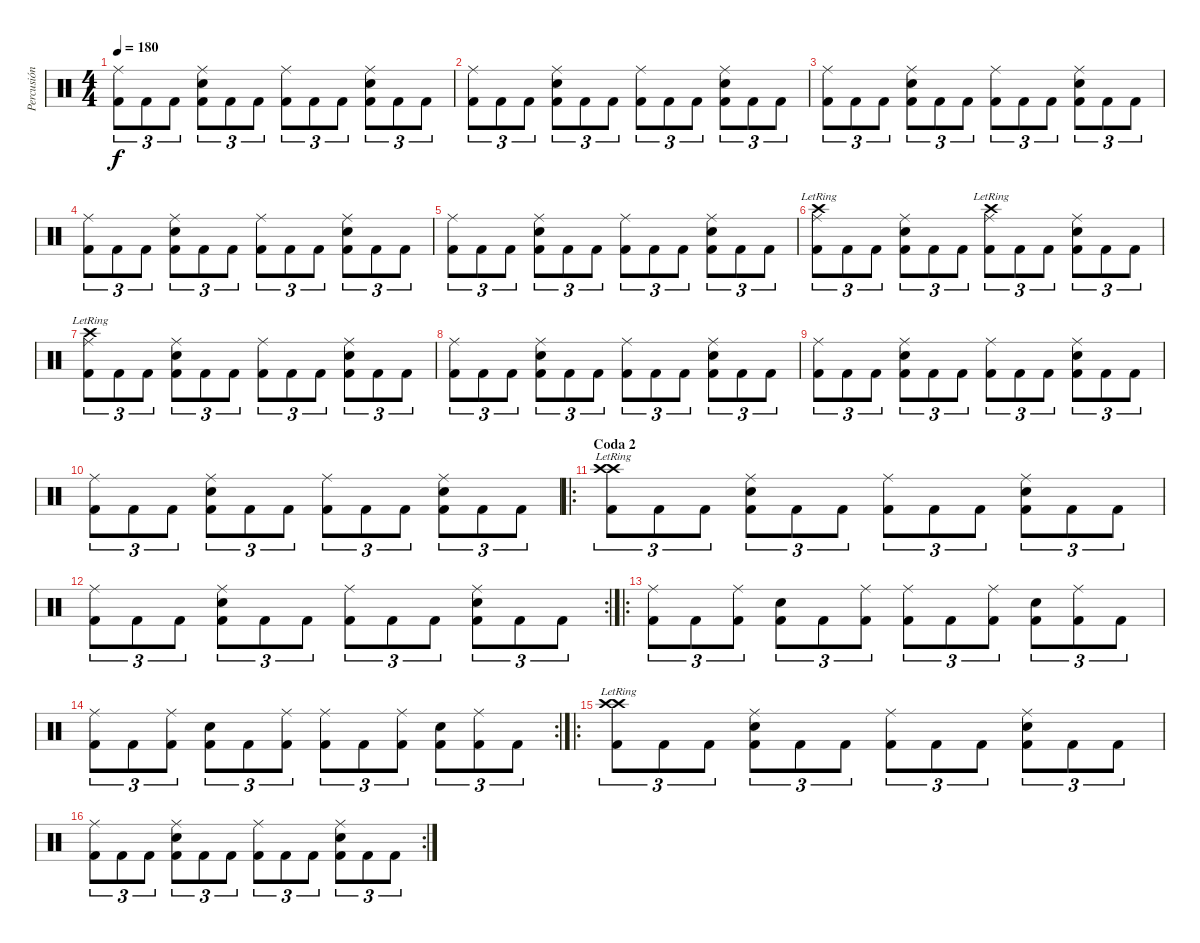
\track ("Percusión" "Percusión") {instrument percussion}
\staff {score}
\articulation defaults
\ts (4 4)
\tempo 180
\clef neutral
\ks c
("Ride (middle)" "Kick (hit) 2").8{tu (3 2) dy f} "Kick (hit) 2".8{tu (3 2)} "Kick (hit) 2".8{tu (3 2)} ("Ride (middle)" "Snare (hit) 2" "Kick (hit) 2").8{tu (3 2)} "Kick (hit) 2".8{tu (3 2)} "Kick (hit) 2".8{tu (3 2)} ("Ride (middle)" "Kick (hit) 2").8{tu (3 2)} "Kick (hit) 2".8{tu (3 2)} "Kick (hit) 2".8{tu (3 2)} ("Ride (middle)" "Snare (hit) 2" "Kick (hit) 2").8{tu (3 2)} "Kick (hit) 2".8{tu (3 2)} "Kick (hit) 2".8{tu (3 2)} |
("Ride (middle)" "Kick (hit) 2").8{tu (3 2)} "Kick (hit) 2".8{tu (3 2)} "Kick (hit) 2".8{tu (3 2)} ("Ride (middle)" "Snare (hit) 2" "Kick (hit) 2").8{tu (3 2)} "Kick (hit) 2".8{tu (3 2)} "Kick (hit) 2".8{tu (3 2)} ("Ride (middle)" "Kick (hit) 2").8{tu (3 2)} "Kick (hit) 2".8{tu (3 2)} "Kick (hit) 2".8{tu (3 2)} ("Ride (middle)" "Snare (hit) 2" "Kick (hit) 2").8{tu (3 2)} "Kick (hit) 2".8{tu (3 2)} "Kick (hit) 2".8{tu (3 2)} |
("Ride (middle)" "Kick (hit) 2").8{tu (3 2)} "Kick (hit) 2".8{tu (3 2)} "Kick (hit) 2".8{tu (3 2)} ("Ride (middle)" "Snare (hit) 2" "Kick (hit) 2").8{tu (3 2)} "Kick (hit) 2".8{tu (3 2)} "Kick (hit) 2".8{tu (3 2)} ("Ride (middle)" "Kick (hit) 2").8{tu (3 2)} "Kick (hit) 2".8{tu (3 2)} "Kick (hit) 2".8{tu (3 2)} ("Ride (middle)" "Snare (hit) 2" "Kick (hit) 2").8{tu (3 2)} "Kick (hit) 2".8{tu (3 2)} "Kick (hit) 2".8{tu (3 2)} |
("Ride (middle)" "Kick (hit) 2").8{tu (3 2)} "Kick (hit) 2".8{tu (3 2)} "Kick (hit) 2".8{tu (3 2)} ("Ride (middle)" "Snare (hit) 2" "Kick (hit) 2").8{tu (3 2)} "Kick (hit) 2".8{tu (3 2)} "Kick (hit) 2".8{tu (3 2)} ("Ride (middle)" "Kick (hit) 2").8{tu (3 2)} "Kick (hit) 2".8{tu (3 2)} "Kick (hit) 2".8{tu (3 2)} ("Ride (middle)" "Snare (hit) 2" "Kick (hit) 2").8{tu (3 2)} "Kick (hit) 2".8{tu (3 2)} "Kick (hit) 2".8{tu (3 2)} |
("Ride (middle)" "Kick (hit) 2").8{tu (3 2)} "Kick (hit) 2".8{tu (3 2)} "Kick (hit) 2".8{tu (3 2)} ("Ride (middle)" "Snare (hit) 2" "Kick (hit) 2").8{tu (3 2)} "Kick (hit) 2".8{tu (3 2)} "Kick (hit) 2".8{tu (3 2)} ("Ride (middle)" "Kick (hit) 2").8{tu (3 2)} "Kick (hit) 2".8{tu (3 2)} "Kick (hit) 2".8{tu (3 2)} ("Ride (middle)" "Snare (hit) 2" "Kick (hit) 2").8{tu (3 2)} "Kick (hit) 2".8{tu (3 2)} "Kick (hit) 2".8{tu (3 2)} |
("Crash high (hit)"{lr} "Ride (middle)" "Kick (hit) 2").8{tu (3 2)} "Kick (hit) 2".8{tu (3 2)} "Kick (hit) 2".8{tu (3 2)} ("Ride (middle)" "Snare (hit) 2" "Kick (hit) 2").8{tu (3 2)} "Kick (hit) 2".8{tu (3 2)} "Kick (hit) 2".8{tu (3 2)} ("Crash high (hit)"{lr} "Ride (middle)" "Kick (hit) 2").8{tu (3 2)} "Kick (hit) 2".8{tu (3 2)} "Kick (hit) 2".8{tu (3 2)} ("Ride (middle)" "Snare (hit) 2" "Kick (hit) 2").8{tu (3 2)} "Kick (hit) 2".8{tu (3 2)} "Kick (hit) 2".8{tu (3 2)} |
("Crash high (hit)"{lr} "Ride (middle)" "Kick (hit) 2").8{tu (3 2)} "Kick (hit) 2".8{tu (3 2)} "Kick (hit) 2".8{tu (3 2)} ("Ride (middle)" "Snare (hit) 2" "Kick (hit) 2").8{tu (3 2)} "Kick (hit) 2".8{tu (3 2)} "Kick (hit) 2".8{tu (3 2)} ("Ride (middle)" "Kick (hit) 2").8{tu (3 2)} "Kick (hit) 2".8{tu (3 2)} "Kick (hit) 2".8{tu (3 2)} ("Ride (middle)" "Snare (hit) 2" "Kick (hit) 2").8{tu (3 2)} "Kick (hit) 2".8{tu (3 2)} "Kick (hit) 2".8{tu (3 2)} |
("Ride (middle)" "Kick (hit) 2").8{tu (3 2)} "Kick (hit) 2".8{tu (3 2)} "Kick (hit) 2".8{tu (3 2)} ("Ride (middle)" "Snare (hit) 2" "Kick (hit) 2").8{tu (3 2)} "Kick (hit) 2".8{tu (3 2)} "Kick (hit) 2".8{tu (3 2)} ("Ride (middle)" "Kick (hit) 2").8{tu (3 2)} "Kick (hit) 2".8{tu (3 2)} "Kick (hit) 2".8{tu (3 2)} ("Ride (middle)" "Snare (hit) 2" "Kick (hit) 2").8{tu (3 2)} "Kick (hit) 2".8{tu (3 2)} "Kick (hit) 2".8{tu (3 2)} |
("Ride (middle)" "Kick (hit) 2").8{tu (3 2)} "Kick (hit) 2".8{tu (3 2)} "Kick (hit) 2".8{tu (3 2)} ("Ride (middle)" "Snare (hit) 2" "Kick (hit) 2").8{tu (3 2)} "Kick (hit) 2".8{tu (3 2)} "Kick (hit) 2".8{tu (3 2)} ("Ride (middle)" "Kick (hit) 2").8{tu (3 2)} "Kick (hit) 2".8{tu (3 2)} "Kick (hit) 2".8{tu (3 2)} ("Ride (middle)" "Snare (hit) 2" "Kick (hit) 2").8{tu (3 2)} "Kick (hit) 2".8{tu (3 2)} "Kick (hit) 2".8{tu (3 2)} |
("Ride (middle)" "Kick (hit) 2").8{tu (3 2)} "Kick (hit) 2".8{tu (3 2)} "Kick (hit) 2".8{tu (3 2)} ("Ride (middle)" "Snare (hit) 2" "Kick (hit) 2").8{tu (3 2)} "Kick (hit) 2".8{tu (3 2)} "Kick (hit) 2".8{tu (3 2)} ("Ride (middle)" "Kick (hit) 2").8{tu (3 2)} "Kick (hit) 2".8{tu (3 2)} "Kick (hit) 2".8{tu (3 2)} ("Ride (middle)" "Snare (hit) 2" "Kick (hit) 2").8{tu (3 2)} "Kick (hit) 2".8{tu (3 2)} "Kick (hit) 2".8{tu (3 2)} |
\ro
\section ("" "Coda 2")
("Crash high (hit)"{lr} "Crash high (hit)"{lr} "Kick (hit) 2").8{tu (3 2)} "Kick (hit) 2".8{tu (3 2)} "Kick (hit) 2".8{tu (3 2)} ("Ride (middle)" "Snare (hit) 2" "Kick (hit) 2").8{tu (3 2)} "Kick (hit) 2".8{tu (3 2)} "Kick (hit) 2".8{tu (3 2)} ("Ride (middle)" "Kick (hit) 2").8{tu (3 2)} "Kick (hit) 2".8{tu (3 2)} "Kick (hit) 2".8{tu (3 2)} ("Ride (middle)" "Snare (hit) 2" "Kick (hit) 2").8{tu (3 2)} "Kick (hit) 2".8{tu (3 2)} "Kick (hit) 2".8{tu (3 2)} |
\rc 2
("Ride (middle)" "Kick (hit) 2").8{tu (3 2)} "Kick (hit) 2".8{tu (3 2)} "Kick (hit) 2".8{tu (3 2)} ("Ride (middle)" "Snare (hit) 2" "Kick (hit) 2").8{tu (3 2)} "Kick (hit) 2".8{tu (3 2)} "Kick (hit) 2".8{tu (3 2)} ("Ride (middle)" "Kick (hit) 2").8{tu (3 2)} "Kick (hit) 2".8{tu (3 2)} "Kick (hit) 2".8{tu (3 2)} ("Ride (middle)" "Snare (hit) 2" "Kick (hit) 2").8{tu (3 2)} "Kick (hit) 2".8{tu (3 2)} "Kick (hit) 2".8{tu (3 2)} |
\ro
("Ride (middle)" "Kick (hit) 2").8{tu (3 2)} "Kick (hit) 2".8{tu (3 2)} ("Ride (middle)" "Kick (hit) 2").8{tu (3 2)} ("Snare (hit) 2" "Kick (hit) 2").8{tu (3 2)} "Kick (hit) 2".8{tu (3 2)} ("Ride (middle)" "Kick (hit) 2").8{tu (3 2)} ("Ride (middle)" "Kick (hit) 2").8{tu (3 2)} "Kick (hit) 2".8{tu (3 2)} ("Ride (middle)" "Kick (hit) 2").8{tu (3 2)} ("Snare (hit) 2" "Kick (hit) 2").8{tu (3 2)} ("Ride (middle)" "Kick (hit) 2").8{tu (3 2)} "Kick (hit) 2".8{tu (3 2)} |
\rc 2
("Ride (middle)" "Kick (hit) 2").8{tu (3 2)} "Kick (hit) 2".8{tu (3 2)} ("Ride (middle)" "Kick (hit) 2").8{tu (3 2)} ("Snare (hit) 2" "Kick (hit) 2").8{tu (3 2)} "Kick (hit) 2".8{tu (3 2)} ("Ride (middle)" "Kick (hit) 2").8{tu (3 2)} ("Ride (middle)" "Kick (hit) 2").8{tu (3 2)} "Kick (hit) 2".8{tu (3 2)} ("Ride (middle)" "Kick (hit) 2").8{tu (3 2)} ("Snare (hit) 2" "Kick (hit) 2").8{tu (3 2)} ("Ride (middle)" "Kick (hit) 2").8{tu (3 2)} "Kick (hit) 2".8{tu (3 2)} |
\ro
("Crash high (hit)"{lr} "Crash high (hit)"{lr} "Kick (hit) 2").8{tu (3 2)} "Kick (hit) 2".8{tu (3 2)} "Kick (hit) 2".8{tu (3 2)} ("Ride (middle)" "Snare (hit) 2" "Kick (hit) 2").8{tu (3 2)} "Kick (hit) 2".8{tu (3 2)} "Kick (hit) 2".8{tu (3 2)} ("Ride (middle)" "Kick (hit) 2").8{tu (3 2)} "Kick (hit) 2".8{tu (3 2)} "Kick (hit) 2".8{tu (3 2)} ("Ride (middle)" "Snare (hit) 2" "Kick (hit) 2").8{tu (3 2)} "Kick (hit) 2".8{tu (3 2)} "Kick (hit) 2".8{tu (3 2)} |
\rc 2
("Ride (middle)" "Kick (hit) 2").8{tu (3 2)} "Kick (hit) 2".8{tu (3 2)} "Kick (hit) 2".8{tu (3 2)} ("Ride (middle)" "Snare (hit) 2" "Kick (hit) 2").8{tu (3 2)} "Kick (hit) 2".8{tu (3 2)} "Kick (hit) 2".8{tu (3 2)} ("Ride (middle)" "Kick (hit) 2").8{tu (3 2)} "Kick (hit) 2".8{tu (3 2)} "Kick (hit) 2".8{tu (3 2)} ("Ride (middle)" "Snare (hit) 2" "Kick (hit) 2").8{tu (3 2)} "Kick (hit) 2".8{tu (3 2)} "Kick (hit) 2".8{tu (3 2)}
